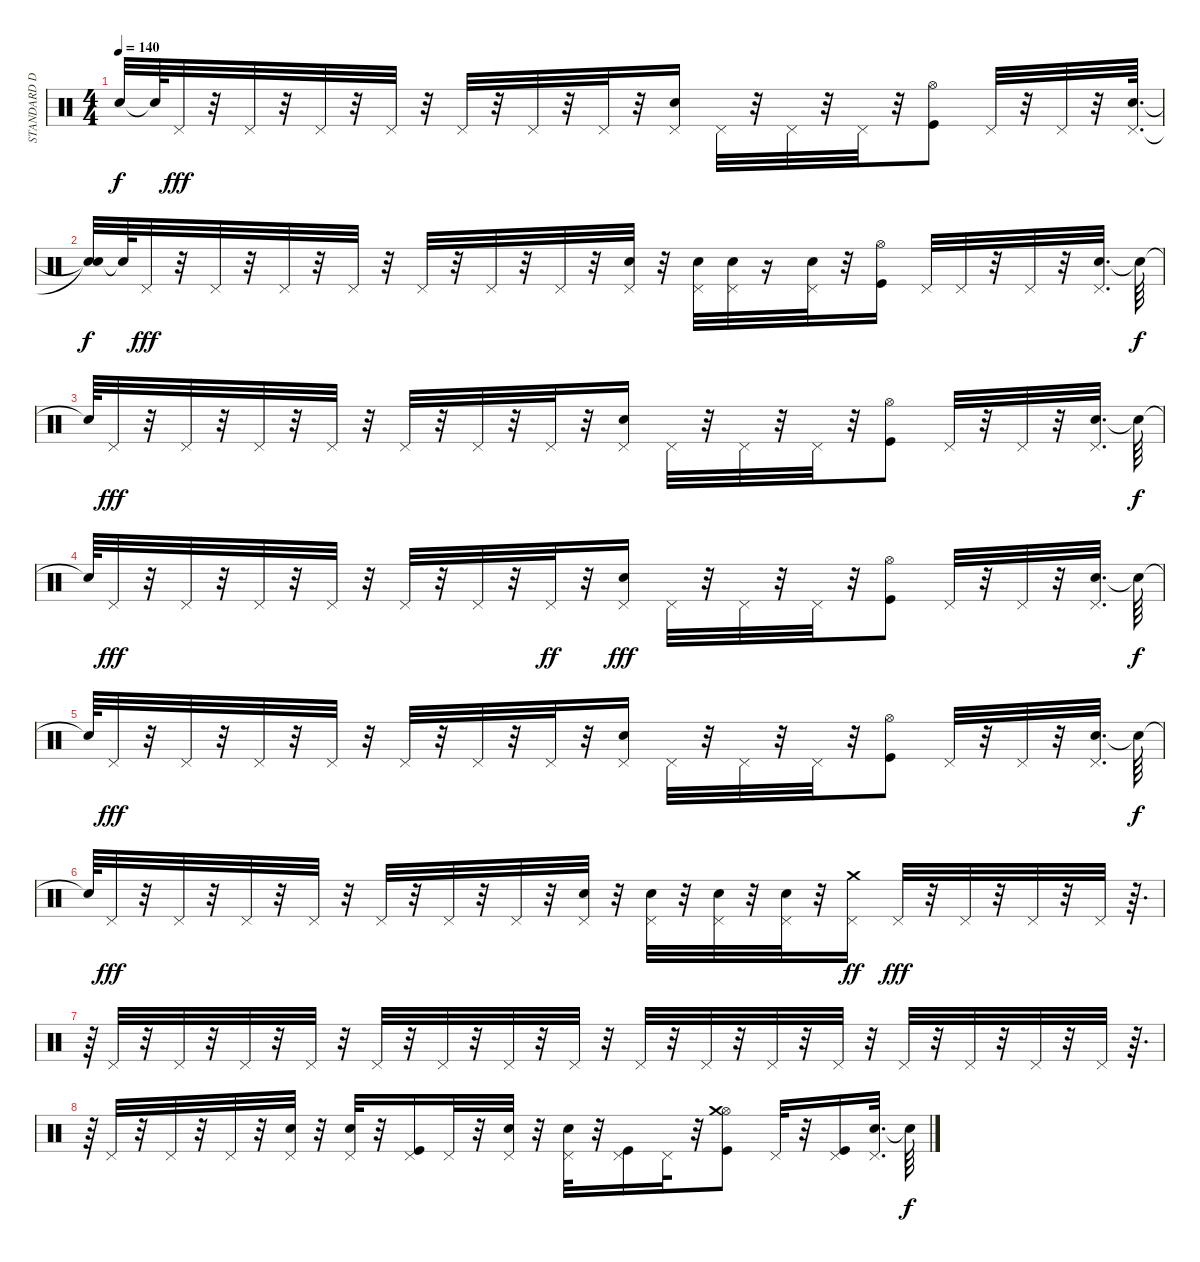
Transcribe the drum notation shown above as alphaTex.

\track ("STANDARD DRUMS" "STANDARD D") {instrument percussion}
\staff {score}
\articulation defaults
\ts (4 4)
\tempo 140
\clef neutral
\ks c "Snare (hit)"{t}.32{dy f} "Snare (hit)"{t}.64 "Pedal Hi-Hat (hit)".32{dy fff}
r.32 "Pedal Hi-Hat (hit)".32 r.32 "Pedal Hi-Hat (hit)".32 r.32 "Pedal Hi-Hat (hit)".32 r.32 "Pedal Hi-Hat (hit)".32 r.32 "Pedal Hi-Hat (hit)".32 r.32 "Pedal Hi-Hat (hit)".32 r.32 ("Snare (hit) 2" "Pedal Hi-Hat (hit)").16 "Pedal Hi-Hat (hit)".32 r.32 "Pedal Hi-Hat (hit)".32 r.32 "Pedal Hi-Hat (hit)".32 r.32 ("Kick (hit)" "Hi-Hat (open)").8 "Pedal Hi-Hat (hit)".32 r.32 "Pedal Hi-Hat (hit)".32 r.32 ("Snare (hit) 2" "Pedal Hi-Hat (hit)").64{d} |
("Snare (hit)"{t} "Snare (hit)"{t}).32{dy f} "Snare (hit)"{t}.64 "Pedal Hi-Hat (hit)".32{dy fff} r.32 "Pedal Hi-Hat (hit)".32 r.32 "Pedal Hi-Hat (hit)".32 r.32 "Pedal Hi-Hat (hit)".32 r.32 "Pedal Hi-Hat (hit)".32 r.32 "Pedal Hi-Hat (hit)".32 r.32 "Pedal Hi-Hat (hit)".32 r.32 ("Snare (hit) 2" "Pedal Hi-Hat (hit)").32 r.32 ("Snare (hit) 2" "Pedal Hi-Hat (hit)").32 ("Snare (hit) 2" "Pedal Hi-Hat (hit)").32 r.16 ("Snare (hit) 2" "Pedal Hi-Hat (hit)").32 r.32 ("Kick (hit)" "Hi-Hat (open)").16 "Pedal Hi-Hat (hit)".32 "Pedal Hi-Hat (hit)".32 r.32 "Pedal Hi-Hat (hit)".32 r.32 ("Snare (hit) 2" "Pedal Hi-Hat (hit)").32{d} "Snare (hit)"{t}.64{dy f} |
"Snare (hit)"{t}.64 "Pedal Hi-Hat (hit)".32{dy fff} r.32 "Pedal Hi-Hat (hit)".32 r.32 "Pedal Hi-Hat (hit)".32 r.32 "Pedal Hi-Hat (hit)".32 r.32 "Pedal Hi-Hat (hit)".32 r.32 "Pedal Hi-Hat (hit)".32 r.32 "Pedal Hi-Hat (hit)".32 r.32 ("Snare (hit) 2" "Pedal Hi-Hat (hit)").16 "Pedal Hi-Hat (hit)".32 r.32 "Pedal Hi-Hat (hit)".32 r.32 "Pedal Hi-Hat (hit)".32 r.32 ("Kick (hit)" "Hi-Hat (open)").8 "Pedal Hi-Hat (hit)".32 r.32 "Pedal Hi-Hat (hit)".32 r.32 ("Snare (hit) 2" "Pedal Hi-Hat (hit)").32{d} "Snare (hit)"{t}.64{dy f} |
"Snare (hit)"{t}.64 "Pedal Hi-Hat (hit)".32{dy fff} r.32 "Pedal Hi-Hat (hit)".32 r.32 "Pedal Hi-Hat (hit)".32 r.32 "Pedal Hi-Hat (hit)".32 r.32 "Pedal Hi-Hat (hit)".32 r.32 "Pedal Hi-Hat (hit)".32 r.32 "Pedal Hi-Hat (hit)".32{dy ff} r.32 ("Snare (hit) 2" "Pedal Hi-Hat (hit)").16{dy fff} "Pedal Hi-Hat (hit)".32 r.32 "Pedal Hi-Hat (hit)".32 r.32 "Pedal Hi-Hat (hit)".32 r.32 ("Kick (hit)" "Hi-Hat (open)").8 "Pedal Hi-Hat (hit)".32 r.32 "Pedal Hi-Hat (hit)".32 r.32 ("Snare (hit) 2" "Pedal Hi-Hat (hit)").32{d} "Snare (hit)"{t}.64{dy f} |
"Snare (hit)"{t}.64 "Pedal Hi-Hat (hit)".32{dy fff} r.32 "Pedal Hi-Hat (hit)".32 r.32 "Pedal Hi-Hat (hit)".32 r.32 "Pedal Hi-Hat (hit)".32 r.32 "Pedal Hi-Hat (hit)".32 r.32 "Pedal Hi-Hat (hit)".32 r.32 "Pedal Hi-Hat (hit)".32 r.32 ("Snare (hit) 2" "Pedal Hi-Hat (hit)").16 "Pedal Hi-Hat (hit)".32 r.32 "Pedal Hi-Hat (hit)".32 r.32 "Pedal Hi-Hat (hit)".32 r.32 ("Kick (hit)" "Hi-Hat (open)").8 "Pedal Hi-Hat (hit)".32 r.32 "Pedal Hi-Hat (hit)".32 r.32 ("Snare (hit) 2" "Pedal Hi-Hat (hit)").32{d} "Snare (hit)"{t}.64{dy f} |
"Snare (hit)"{t}.64 "Pedal Hi-Hat (hit)".32{dy fff} r.32 "Pedal Hi-Hat (hit)".32 r.32 "Pedal Hi-Hat (hit)".32 r.32 "Pedal Hi-Hat (hit)".32 r.32 "Pedal Hi-Hat (hit)".32 r.32 "Pedal Hi-Hat (hit)".32 r.32 "Pedal Hi-Hat (hit)".32 r.32 ("Snare (hit) 2" "Pedal Hi-Hat (hit)").32 r.32 ("Snare (hit) 2" "Pedal Hi-Hat (hit)").32 r.32 ("Snare (hit) 2" "Pedal Hi-Hat (hit)").32 r.32 ("Snare (hit) 2" "Pedal Hi-Hat (hit)").32 r.32 ("Pedal Hi-Hat (hit)" "Crash medium (hit)").16{dy ff} "Pedal Hi-Hat (hit)".32{dy fff} r.32 "Pedal Hi-Hat (hit)".32 r.32 "Pedal Hi-Hat (hit)".32 r.32 "Pedal Hi-Hat (hit)".32 r.64{d} |
r.64 "Pedal Hi-Hat (hit)".32 r.32 "Pedal Hi-Hat (hit)".32 r.32 "Pedal Hi-Hat (hit)".32 r.32 "Pedal Hi-Hat (hit)".32 r.32 "Pedal Hi-Hat (hit)".32 r.32 "Pedal Hi-Hat (hit)".32 r.32 "Pedal Hi-Hat (hit)".32 r.32 "Pedal Hi-Hat (hit)".32 r.32 "Pedal Hi-Hat (hit)".32 r.32 "Pedal Hi-Hat (hit)".32 r.32 "Pedal Hi-Hat (hit)".32 r.32 "Pedal Hi-Hat (hit)".32 r.32 "Pedal Hi-Hat (hit)".32 r.32 "Pedal Hi-Hat (hit)".32 r.32 "Pedal Hi-Hat (hit)".32 r.32 "Pedal Hi-Hat (hit)".32 r.64{d} |
r.64 "Pedal Hi-Hat (hit)".32 r.32 "Pedal Hi-Hat (hit)".32 r.32 "Pedal Hi-Hat (hit)".32 r.32 ("Snare (hit) 2" "Pedal Hi-Hat (hit)").32 r.32 ("Snare (hit) 2" "Pedal Hi-Hat (hit)").32 r.32 ("Kick (hit)" "Pedal Hi-Hat (hit)").16 "Pedal Hi-Hat (hit)".32 r.32 ("Snare (hit) 2" "Pedal Hi-Hat (hit)").32 r.32 ("Snare (hit) 2" "Pedal Hi-Hat (hit)").32 r.32 ("Kick (hit)" "Pedal Hi-Hat (hit)").16 "Pedal Hi-Hat (hit)".32 r.32 ("Kick (hit)" "Hi-Hat (open)" "Crash medium (hit)").8 "Pedal Hi-Hat (hit)".32 r.32 ("Kick (hit)" "Pedal Hi-Hat (hit)").16 ("Snare (hit) 2" "Pedal Hi-Hat (hit)").32{d} "Snare (hit)"{t}.64{dy f}
